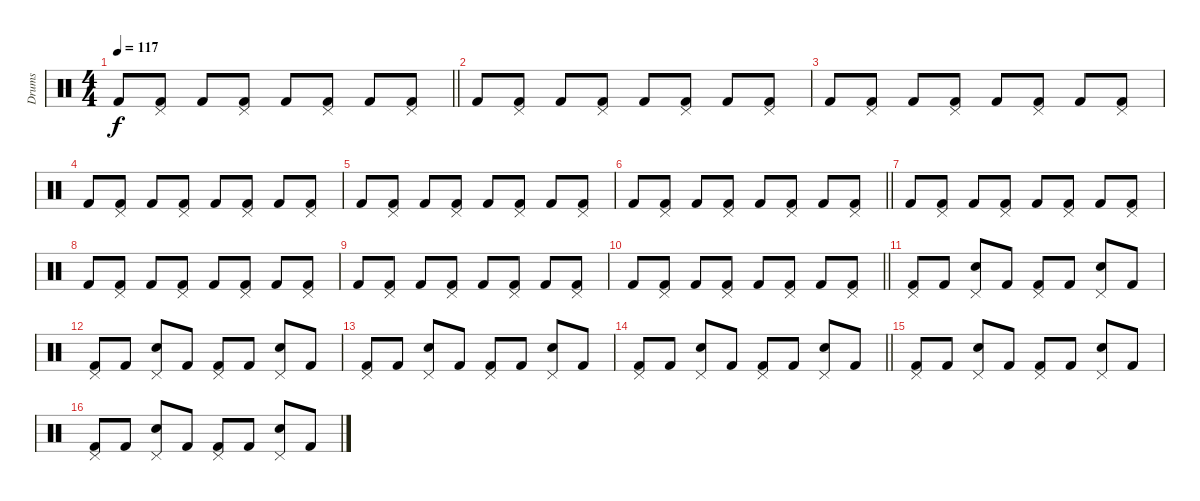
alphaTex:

\track ("Drums" "Drums") {instrument percussion}
\staff {score}
\articulation defaults
\ts (4 4)
\tempo 117
\clef neutral
\barLineRight lightlight
\ks c "Kick (hit) 2".8{dy f}
("Kick (hit) 2" "Pedal Hi-Hat (hit)").8 "Kick (hit) 2".8 ("Kick (hit) 2" "Pedal Hi-Hat (hit)").8 "Kick (hit) 2".8 ("Kick (hit) 2" "Pedal Hi-Hat (hit)").8 "Kick (hit) 2".8 ("Kick (hit) 2" "Pedal Hi-Hat (hit)").8 |
"Kick (hit) 2".8 ("Kick (hit) 2" "Pedal Hi-Hat (hit)").8 "Kick (hit) 2".8 ("Kick (hit) 2" "Pedal Hi-Hat (hit)").8 "Kick (hit) 2".8 ("Kick (hit) 2" "Pedal Hi-Hat (hit)").8 "Kick (hit) 2".8 ("Kick (hit) 2" "Pedal Hi-Hat (hit)").8 |
"Kick (hit) 2".8 ("Kick (hit) 2" "Pedal Hi-Hat (hit)").8 "Kick (hit) 2".8 ("Kick (hit) 2" "Pedal Hi-Hat (hit)").8 "Kick (hit) 2".8 ("Kick (hit) 2" "Pedal Hi-Hat (hit)").8 "Kick (hit) 2".8 ("Kick (hit) 2" "Pedal Hi-Hat (hit)").8 |
"Kick (hit) 2".8 ("Kick (hit) 2" "Pedal Hi-Hat (hit)").8 "Kick (hit) 2".8 ("Kick (hit) 2" "Pedal Hi-Hat (hit)").8 "Kick (hit) 2".8 ("Kick (hit) 2" "Pedal Hi-Hat (hit)").8 "Kick (hit) 2".8 ("Kick (hit) 2" "Pedal Hi-Hat (hit)").8 |
"Kick (hit) 2".8 ("Kick (hit) 2" "Pedal Hi-Hat (hit)").8 "Kick (hit) 2".8 ("Kick (hit) 2" "Pedal Hi-Hat (hit)").8 "Kick (hit) 2".8 ("Kick (hit) 2" "Pedal Hi-Hat (hit)").8 "Kick (hit) 2".8 ("Kick (hit) 2" "Pedal Hi-Hat (hit)").8 |
\barLineRight lightlight "Kick (hit) 2".8
("Kick (hit) 2" "Pedal Hi-Hat (hit)").8 "Kick (hit) 2".8 ("Kick (hit) 2" "Pedal Hi-Hat (hit)").8 "Kick (hit) 2".8 ("Kick (hit) 2" "Pedal Hi-Hat (hit)").8 "Kick (hit) 2".8 ("Kick (hit) 2" "Pedal Hi-Hat (hit)").8 |
"Kick (hit) 2".8 ("Kick (hit) 2" "Pedal Hi-Hat (hit)").8 "Kick (hit) 2".8 ("Kick (hit) 2" "Pedal Hi-Hat (hit)").8 "Kick (hit) 2".8 ("Kick (hit) 2" "Pedal Hi-Hat (hit)").8 "Kick (hit) 2".8 ("Kick (hit) 2" "Pedal Hi-Hat (hit)").8 |
"Kick (hit) 2".8 ("Kick (hit) 2" "Pedal Hi-Hat (hit)").8 "Kick (hit) 2".8 ("Kick (hit) 2" "Pedal Hi-Hat (hit)").8 "Kick (hit) 2".8 ("Kick (hit) 2" "Pedal Hi-Hat (hit)").8 "Kick (hit) 2".8 ("Kick (hit) 2" "Pedal Hi-Hat (hit)").8 |
"Kick (hit) 2".8 ("Kick (hit) 2" "Pedal Hi-Hat (hit)").8 "Kick (hit) 2".8 ("Kick (hit) 2" "Pedal Hi-Hat (hit)").8 "Kick (hit) 2".8 ("Kick (hit) 2" "Pedal Hi-Hat (hit)").8 "Kick (hit) 2".8 ("Kick (hit) 2" "Pedal Hi-Hat (hit)").8 |
\barLineRight lightlight "Kick (hit) 2".8
("Kick (hit) 2" "Pedal Hi-Hat (hit)").8 "Kick (hit) 2".8 ("Kick (hit) 2" "Pedal Hi-Hat (hit)").8 "Kick (hit) 2".8 ("Kick (hit) 2" "Pedal Hi-Hat (hit)").8 "Kick (hit) 2".8 ("Kick (hit) 2" "Pedal Hi-Hat (hit)").8 |
("Kick (hit) 2" "Pedal Hi-Hat (hit)").8 "Kick (hit) 2".8 ("Snare (hit) 2" "Pedal Hi-Hat (hit)").8 "Kick (hit) 2".8 ("Kick (hit) 2" "Pedal Hi-Hat (hit)").8 "Kick (hit) 2".8 ("Snare (hit) 2" "Pedal Hi-Hat (hit)").8 "Kick (hit) 2".8 |
("Kick (hit) 2" "Pedal Hi-Hat (hit)").8 "Kick (hit) 2".8 ("Snare (hit) 2" "Pedal Hi-Hat (hit)").8 "Kick (hit) 2".8 ("Kick (hit) 2" "Pedal Hi-Hat (hit)").8 "Kick (hit) 2".8 ("Snare (hit) 2" "Pedal Hi-Hat (hit)").8 "Kick (hit) 2".8 |
("Kick (hit) 2" "Pedal Hi-Hat (hit)").8 "Kick (hit) 2".8 ("Snare (hit) 2" "Pedal Hi-Hat (hit)").8 "Kick (hit) 2".8 ("Kick (hit) 2" "Pedal Hi-Hat (hit)").8 "Kick (hit) 2".8 ("Snare (hit) 2" "Pedal Hi-Hat (hit)").8 "Kick (hit) 2".8 |
\barLineRight lightlight
("Kick (hit) 2" "Pedal Hi-Hat (hit)").8 "Kick (hit) 2".8 ("Snare (hit) 2" "Pedal Hi-Hat (hit)").8 "Kick (hit) 2".8 ("Kick (hit) 2" "Pedal Hi-Hat (hit)").8 "Kick (hit) 2".8 ("Snare (hit) 2" "Pedal Hi-Hat (hit)").8 "Kick (hit) 2".8 |
("Kick (hit) 2" "Pedal Hi-Hat (hit)").8 "Kick (hit) 2".8 ("Snare (hit) 2" "Pedal Hi-Hat (hit)").8 "Kick (hit) 2".8 ("Kick (hit) 2" "Pedal Hi-Hat (hit)").8 "Kick (hit) 2".8 ("Snare (hit) 2" "Pedal Hi-Hat (hit)").8 "Kick (hit) 2".8 |
("Kick (hit) 2" "Pedal Hi-Hat (hit)").8 "Kick (hit) 2".8 ("Snare (hit) 2" "Pedal Hi-Hat (hit)").8 "Kick (hit) 2".8 ("Kick (hit) 2" "Pedal Hi-Hat (hit)").8 "Kick (hit) 2".8 ("Snare (hit) 2" "Pedal Hi-Hat (hit)").8 "Kick (hit) 2".8
